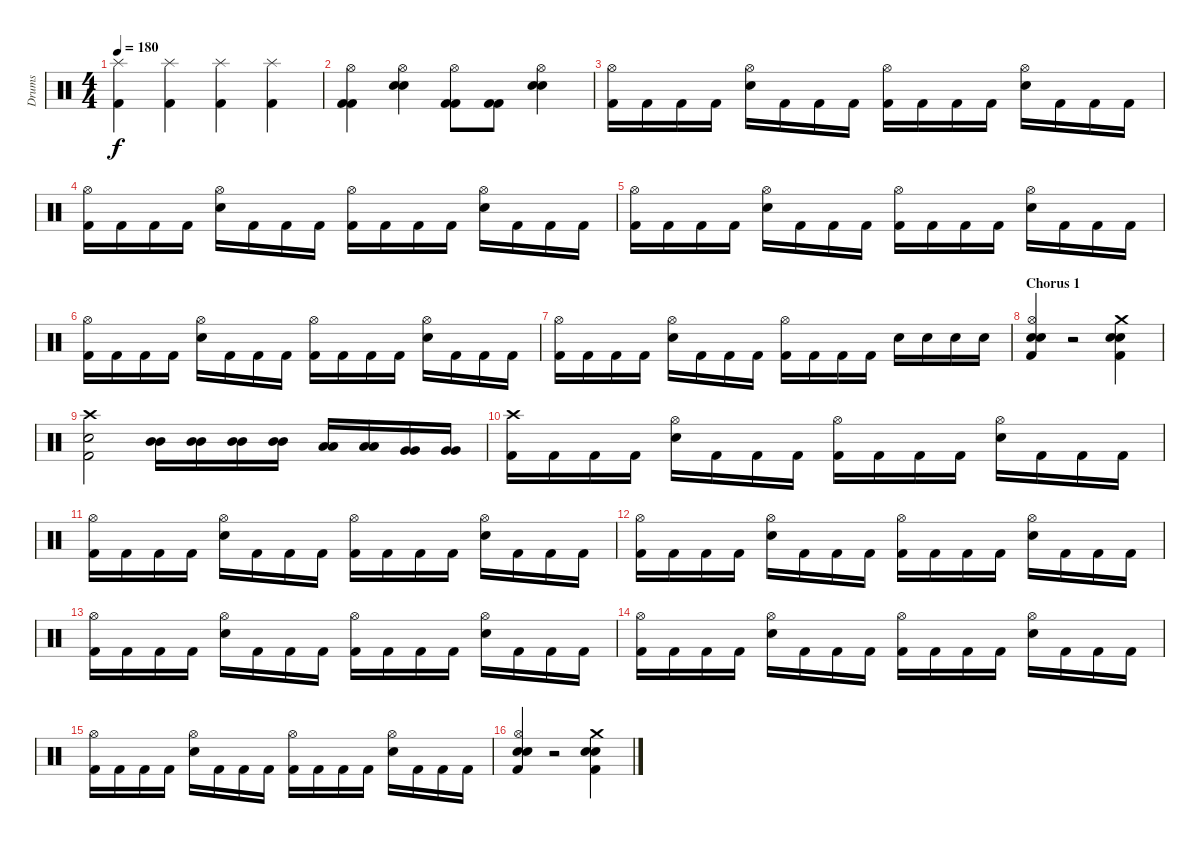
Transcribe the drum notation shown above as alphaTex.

\track ("Drums" "Drums") {instrument percussion}
\staff {score}
\articulation defaults
\ts (4 4)
\tempo 180
\clef neutral
\ks c
("Splash (hit)" "Kick (hit) 2").4{dy f} ("Splash (hit)" "Kick (hit) 2").4 ("Splash (hit)" "Kick (hit) 2").4 ("Splash (hit)" "Kick (hit) 2").4 |
("Hi-Hat (open)" "Kick (hit) 2" "Kick (hit) 2").4 ("Hi-Hat (open)" "Snare (hit) 2" "Snare (hit) 2").4 ("Hi-Hat (open)" "Kick (hit) 2" "Kick (hit) 2").8 ("Kick (hit) 2" "Kick (hit) 2").8 ("Hi-Hat (open)" "Snare (hit) 2" "Snare (hit) 2").4 |
("Hi-Hat (open)" "Kick (hit) 2").16 "Kick (hit) 2".16 "Kick (hit) 2".16 "Kick (hit) 2".16 ("Hi-Hat (open)" "Snare (hit) 2").16 "Kick (hit) 2".16 "Kick (hit) 2".16 "Kick (hit) 2".16 ("Hi-Hat (open)" "Kick (hit) 2").16 "Kick (hit) 2".16 "Kick (hit) 2".16 "Kick (hit) 2".16 ("Hi-Hat (open)" "Snare (hit) 2").16 "Kick (hit) 2".16 "Kick (hit) 2".16 "Kick (hit) 2".16 |
("Hi-Hat (open)" "Kick (hit) 2").16 "Kick (hit) 2".16 "Kick (hit) 2".16 "Kick (hit) 2".16 ("Hi-Hat (open)" "Snare (hit) 2").16 "Kick (hit) 2".16 "Kick (hit) 2".16 "Kick (hit) 2".16 ("Hi-Hat (open)" "Kick (hit) 2").16 "Kick (hit) 2".16 "Kick (hit) 2".16 "Kick (hit) 2".16 ("Hi-Hat (open)" "Snare (hit) 2").16 "Kick (hit) 2".16 "Kick (hit) 2".16 "Kick (hit) 2".16 |
("Hi-Hat (open)" "Kick (hit) 2").16 "Kick (hit) 2".16 "Kick (hit) 2".16 "Kick (hit) 2".16 ("Hi-Hat (open)" "Snare (hit) 2").16 "Kick (hit) 2".16 "Kick (hit) 2".16 "Kick (hit) 2".16 ("Hi-Hat (open)" "Kick (hit) 2").16 "Kick (hit) 2".16 "Kick (hit) 2".16 "Kick (hit) 2".16 ("Hi-Hat (open)" "Snare (hit) 2").16 "Kick (hit) 2".16 "Kick (hit) 2".16 "Kick (hit) 2".16 |
("Hi-Hat (open)" "Kick (hit) 2").16 "Kick (hit) 2".16 "Kick (hit) 2".16 "Kick (hit) 2".16 ("Hi-Hat (open)" "Snare (hit) 2").16 "Kick (hit) 2".16 "Kick (hit) 2".16 "Kick (hit) 2".16 ("Hi-Hat (open)" "Kick (hit) 2").16 "Kick (hit) 2".16 "Kick (hit) 2".16 "Kick (hit) 2".16 ("Hi-Hat (open)" "Snare (hit) 2").16 "Kick (hit) 2".16 "Kick (hit) 2".16 "Kick (hit) 2".16 |
("Hi-Hat (open)" "Kick (hit) 2").16 "Kick (hit) 2".16 "Kick (hit) 2".16 "Kick (hit) 2".16 ("Hi-Hat (open)" "Snare (hit) 2").16 "Kick (hit) 2".16 "Kick (hit) 2".16 "Kick (hit) 2".16 ("Hi-Hat (open)" "Kick (hit) 2").16 "Kick (hit) 2".16 "Kick (hit) 2".16 "Kick (hit) 2".16 "Snare (hit) 2".16 "Snare (hit) 2".16 "Snare (hit) 2".16 "Snare (hit) 2".16 |
\section ("" "Chorus 1")
("Hi-Hat (open)" "Snare (hit) 2" "Snare (hit) 2" "Kick (hit) 2").4 r.2 ("Crash medium (hit)" "Snare (hit) 2" "Snare (hit) 2" "Kick (hit) 2").4 |
("Crash high (hit)" "Snare (hit) 2" "Kick (hit) 2").2 ("Mid Tom (hit)" "Mid Tom (hit)").16 ("Mid Tom (hit)" "Mid Tom (hit)").16 ("Mid Tom (hit)" "Mid Tom (hit)").16 ("Mid Tom (hit)" "Mid Tom (hit)").16 ("Low Tom (hit)" "Low Tom (hit)").16 ("Low Tom (hit)" "Low Tom (hit)").16 ("Very Low Tom (hit)" "Very Low Tom (hit)").16 ("Very Low Tom (hit)" "Very Low Tom (hit)").16 |
("Crash high (hit)" "Kick (hit) 2").16 "Kick (hit) 2".16 "Kick (hit) 2".16 "Kick (hit) 2".16 ("Hi-Hat (open)" "Snare (hit) 2").16 "Kick (hit) 2".16 "Kick (hit) 2".16 "Kick (hit) 2".16 ("Hi-Hat (open)" "Kick (hit) 2").16 "Kick (hit) 2".16 "Kick (hit) 2".16 "Kick (hit) 2".16 ("Hi-Hat (open)" "Snare (hit) 2").16 "Kick (hit) 2".16 "Kick (hit) 2".16 "Kick (hit) 2".16 |
("Hi-Hat (open)" "Kick (hit) 2").16 "Kick (hit) 2".16 "Kick (hit) 2".16 "Kick (hit) 2".16 ("Hi-Hat (open)" "Snare (hit) 2").16 "Kick (hit) 2".16 "Kick (hit) 2".16 "Kick (hit) 2".16 ("Hi-Hat (open)" "Kick (hit) 2").16 "Kick (hit) 2".16 "Kick (hit) 2".16 "Kick (hit) 2".16 ("Hi-Hat (open)" "Snare (hit) 2").16 "Kick (hit) 2".16 "Kick (hit) 2".16 "Kick (hit) 2".16 |
("Hi-Hat (open)" "Kick (hit) 2").16 "Kick (hit) 2".16 "Kick (hit) 2".16 "Kick (hit) 2".16 ("Hi-Hat (open)" "Snare (hit) 2").16 "Kick (hit) 2".16 "Kick (hit) 2".16 "Kick (hit) 2".16 ("Hi-Hat (open)" "Kick (hit) 2").16 "Kick (hit) 2".16 "Kick (hit) 2".16 "Kick (hit) 2".16 ("Hi-Hat (open)" "Snare (hit) 2").16 "Kick (hit) 2".16 "Kick (hit) 2".16 "Kick (hit) 2".16 |
("Hi-Hat (open)" "Kick (hit) 2").16 "Kick (hit) 2".16 "Kick (hit) 2".16 "Kick (hit) 2".16 ("Hi-Hat (open)" "Snare (hit) 2").16 "Kick (hit) 2".16 "Kick (hit) 2".16 "Kick (hit) 2".16 ("Hi-Hat (open)" "Kick (hit) 2").16 "Kick (hit) 2".16 "Kick (hit) 2".16 "Kick (hit) 2".16 ("Hi-Hat (open)" "Snare (hit) 2").16 "Kick (hit) 2".16 "Kick (hit) 2".16 "Kick (hit) 2".16 |
("Hi-Hat (open)" "Kick (hit) 2").16 "Kick (hit) 2".16 "Kick (hit) 2".16 "Kick (hit) 2".16 ("Hi-Hat (open)" "Snare (hit) 2").16 "Kick (hit) 2".16 "Kick (hit) 2".16 "Kick (hit) 2".16 ("Hi-Hat (open)" "Kick (hit) 2").16 "Kick (hit) 2".16 "Kick (hit) 2".16 "Kick (hit) 2".16 ("Hi-Hat (open)" "Snare (hit) 2").16 "Kick (hit) 2".16 "Kick (hit) 2".16 "Kick (hit) 2".16 |
("Hi-Hat (open)" "Kick (hit) 2").16 "Kick (hit) 2".16 "Kick (hit) 2".16 "Kick (hit) 2".16 ("Hi-Hat (open)" "Snare (hit) 2").16 "Kick (hit) 2".16 "Kick (hit) 2".16 "Kick (hit) 2".16 ("Hi-Hat (open)" "Kick (hit) 2").16 "Kick (hit) 2".16 "Kick (hit) 2".16 "Kick (hit) 2".16 ("Hi-Hat (open)" "Snare (hit) 2").16 "Kick (hit) 2".16 "Kick (hit) 2".16 "Kick (hit) 2".16 |
("Hi-Hat (open)" "Snare (hit) 2" "Snare (hit) 2" "Kick (hit) 2").4 r.2 ("Crash medium (hit)" "Snare (hit) 2" "Snare (hit) 2" "Kick (hit) 2").4
